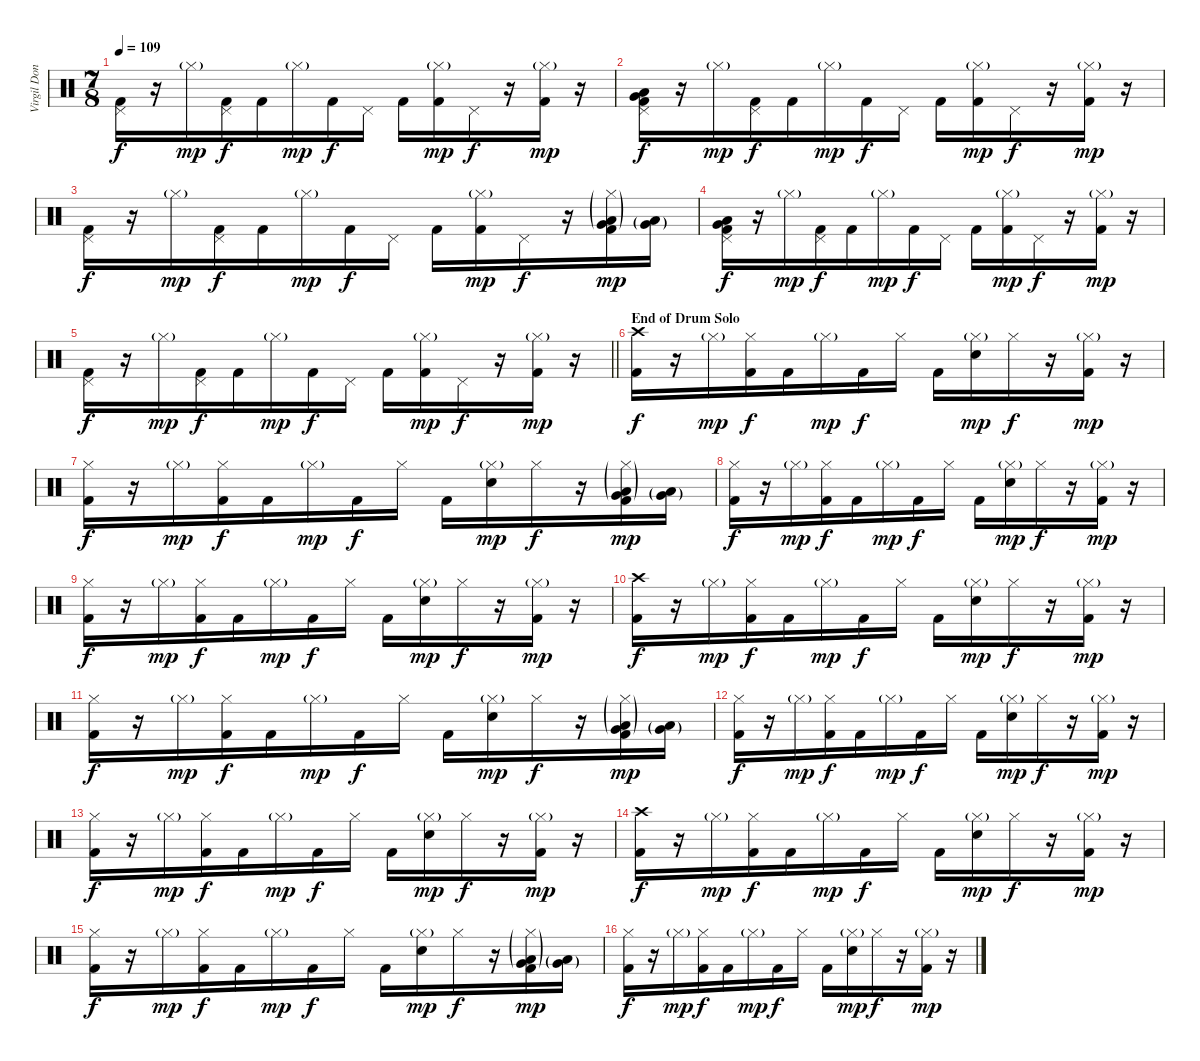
\track ("Virgil Donati" "Virgil Don") {instrument percussion}
\staff {score}
\articulation defaults
\ts (7 8)
\tempo 109
\clef neutral
\ks c
("Pedal Hi-Hat (hit)" "Kick (hit) 2").16{dy f} r.16 "Hi-Hat (closed)"{g}.16{dy mp} ("Pedal Hi-Hat (hit)" "Kick (hit) 2").16{dy f} "Kick (hit) 2".16 "Hi-Hat (closed)"{g}.16{dy mp} "Kick (hit) 2".16{dy f} "Pedal Hi-Hat (hit)".16 "Kick (hit) 2".16 ("Hi-Hat (closed)"{g} "Kick (hit) 2").16{dy mp} "Pedal Hi-Hat (hit)".16{dy f} r.16 ("Hi-Hat (closed)"{g} "Kick (hit) 2").16{dy mp} r.16 |
("Pedal Hi-Hat (hit)" "Very Low Tom (hit)" "Low Floor Tom (hit)" "Kick (hit) 2").16{dy f} r.16 "Hi-Hat (closed)"{g}.16{dy mp} ("Pedal Hi-Hat (hit)" "Kick (hit) 2").16{dy f} "Kick (hit) 2".16 "Hi-Hat (closed)"{g}.16{dy mp} "Kick (hit) 2".16{dy f} "Pedal Hi-Hat (hit)".16 "Kick (hit) 2".16 ("Hi-Hat (closed)"{g} "Kick (hit) 2").16{dy mp} "Pedal Hi-Hat (hit)".16{dy f} r.16 ("Hi-Hat (closed)"{g} "Kick (hit) 2").16{dy mp} r.16 |
("Pedal Hi-Hat (hit)" "Kick (hit) 2").16{dy f} r.16 "Hi-Hat (closed)"{g}.16{dy mp} ("Pedal Hi-Hat (hit)" "Kick (hit) 2").16{dy f} "Kick (hit) 2".16 "Hi-Hat (closed)"{g}.16{dy mp} "Kick (hit) 2".16{dy f} "Pedal Hi-Hat (hit)".16 "Kick (hit) 2".16 ("Hi-Hat (closed)"{g} "Kick (hit) 2").16{dy mp} "Pedal Hi-Hat (hit)".16{dy f} r.16 ("Hi-Hat (closed)"{g} "Very Low Tom (hit)"{g} "Low Floor Tom (hit)"{g} "Kick (hit) 2").16{dy mp} ("Very Low Tom (hit)"{g} "Low Floor Tom (hit)"{g}).16 |
("Pedal Hi-Hat (hit)" "Very Low Tom (hit)" "Low Floor Tom (hit)" "Kick (hit) 2").16{dy f} r.16 "Hi-Hat (closed)"{g}.16{dy mp} ("Pedal Hi-Hat (hit)" "Kick (hit) 2").16{dy f} "Kick (hit) 2".16 "Hi-Hat (closed)"{g}.16{dy mp} "Kick (hit) 2".16{dy f} "Pedal Hi-Hat (hit)".16 "Kick (hit) 2".16 ("Hi-Hat (closed)"{g} "Kick (hit) 2").16{dy mp} "Pedal Hi-Hat (hit)".16{dy f} r.16 ("Hi-Hat (closed)"{g} "Kick (hit) 2").16{dy mp} r.16 |
\barLineRight lightlight
("Pedal Hi-Hat (hit)" "Kick (hit) 2").16{dy f} r.16 "Hi-Hat (closed)"{g}.16{dy mp} ("Pedal Hi-Hat (hit)" "Kick (hit) 2").16{dy f} "Kick (hit) 2".16 "Hi-Hat (closed)"{g}.16{dy mp} "Kick (hit) 2".16{dy f} "Pedal Hi-Hat (hit)".16 "Kick (hit) 2".16 ("Hi-Hat (closed)"{g} "Kick (hit) 2").16{dy mp} "Pedal Hi-Hat (hit)".16{dy f} r.16 ("Hi-Hat (closed)"{g} "Kick (hit) 2").16{dy mp} r.16 |
\section ("" "End of Drum Solo")
("Crash high (hit)" "Kick (hit) 2").16{dy f} r.16 "Hi-Hat (closed)"{g}.16{dy mp} ("Hi-Hat (closed)" "Kick (hit) 2").16{dy f} "Kick (hit) 2".16 "Hi-Hat (closed)"{g}.16{dy mp} "Kick (hit) 2".16{dy f} "Hi-Hat (closed)".16 "Kick (hit) 2".16 ("Hi-Hat (closed)"{g} "Electric Snare (hit)").16{dy mp} "Hi-Hat (closed)".16{dy f} r.16 ("Hi-Hat (closed)"{g} "Kick (hit) 2").16{dy mp} r.16 |
("Hi-Hat (closed)" "Kick (hit) 2").16{dy f} r.16 "Hi-Hat (closed)"{g}.16{dy mp} ("Hi-Hat (closed)" "Kick (hit) 2").16{dy f} "Kick (hit) 2".16 "Hi-Hat (closed)"{g}.16{dy mp} "Kick (hit) 2".16{dy f} "Hi-Hat (closed)".16 "Kick (hit) 2".16 ("Hi-Hat (closed)"{g} "Electric Snare (hit)").16{dy mp} "Hi-Hat (closed)".16{dy f} r.16 ("Hi-Hat (closed)"{g} "Very Low Tom (hit)"{g} "Low Floor Tom (hit)"{g} "Kick (hit) 2").16{dy mp} ("Very Low Tom (hit)"{g} "Low Floor Tom (hit)"{g}).16 |
("Hi-Hat (closed)" "Kick (hit) 2").16{dy f} r.16 "Hi-Hat (closed)"{g}.16{dy mp} ("Hi-Hat (closed)" "Kick (hit) 2").16{dy f} "Kick (hit) 2".16 "Hi-Hat (closed)"{g}.16{dy mp} "Kick (hit) 2".16{dy f} "Hi-Hat (closed)".16 "Kick (hit) 2".16 ("Hi-Hat (closed)"{g} "Electric Snare (hit)").16{dy mp} "Hi-Hat (closed)".16{dy f} r.16 ("Hi-Hat (closed)"{g} "Kick (hit) 2").16{dy mp} r.16 |
("Hi-Hat (closed)" "Kick (hit) 2").16{dy f} r.16 "Hi-Hat (closed)"{g}.16{dy mp} ("Hi-Hat (closed)" "Kick (hit) 2").16{dy f} "Kick (hit) 2".16 "Hi-Hat (closed)"{g}.16{dy mp} "Kick (hit) 2".16{dy f} "Hi-Hat (closed)".16 "Kick (hit) 2".16 ("Hi-Hat (closed)"{g} "Electric Snare (hit)").16{dy mp} "Hi-Hat (closed)".16{dy f} r.16 ("Hi-Hat (closed)"{g} "Kick (hit) 2").16{dy mp} r.16 |
("Crash high (hit)" "Kick (hit) 2").16{dy f} r.16 "Hi-Hat (closed)"{g}.16{dy mp} ("Hi-Hat (closed)" "Kick (hit) 2").16{dy f} "Kick (hit) 2".16 "Hi-Hat (closed)"{g}.16{dy mp} "Kick (hit) 2".16{dy f} "Hi-Hat (closed)".16 "Kick (hit) 2".16 ("Hi-Hat (closed)"{g} "Electric Snare (hit)").16{dy mp} "Hi-Hat (closed)".16{dy f} r.16 ("Hi-Hat (closed)"{g} "Kick (hit) 2").16{dy mp} r.16 |
("Hi-Hat (closed)" "Kick (hit) 2").16{dy f} r.16 "Hi-Hat (closed)"{g}.16{dy mp} ("Hi-Hat (closed)" "Kick (hit) 2").16{dy f} "Kick (hit) 2".16 "Hi-Hat (closed)"{g}.16{dy mp} "Kick (hit) 2".16{dy f} "Hi-Hat (closed)".16 "Kick (hit) 2".16 ("Hi-Hat (closed)"{g} "Electric Snare (hit)").16{dy mp} "Hi-Hat (closed)".16{dy f} r.16 ("Hi-Hat (closed)"{g} "Very Low Tom (hit)"{g} "Low Floor Tom (hit)"{g} "Kick (hit) 2").16{dy mp} ("Very Low Tom (hit)"{g} "Low Floor Tom (hit)"{g}).16 |
("Hi-Hat (closed)" "Kick (hit) 2").16{dy f} r.16 "Hi-Hat (closed)"{g}.16{dy mp} ("Hi-Hat (closed)" "Kick (hit) 2").16{dy f} "Kick (hit) 2".16 "Hi-Hat (closed)"{g}.16{dy mp} "Kick (hit) 2".16{dy f} "Hi-Hat (closed)".16 "Kick (hit) 2".16 ("Hi-Hat (closed)"{g} "Electric Snare (hit)").16{dy mp} "Hi-Hat (closed)".16{dy f} r.16 ("Hi-Hat (closed)"{g} "Kick (hit) 2").16{dy mp} r.16 |
("Hi-Hat (closed)" "Kick (hit) 2").16{dy f} r.16 "Hi-Hat (closed)"{g}.16{dy mp} ("Hi-Hat (closed)" "Kick (hit) 2").16{dy f} "Kick (hit) 2".16 "Hi-Hat (closed)"{g}.16{dy mp} "Kick (hit) 2".16{dy f} "Hi-Hat (closed)".16 "Kick (hit) 2".16 ("Hi-Hat (closed)"{g} "Electric Snare (hit)").16{dy mp} "Hi-Hat (closed)".16{dy f} r.16 ("Hi-Hat (closed)"{g} "Kick (hit) 2").16{dy mp} r.16 |
("Crash high (hit)" "Kick (hit) 2").16{dy f} r.16 "Hi-Hat (closed)"{g}.16{dy mp} ("Hi-Hat (closed)" "Kick (hit) 2").16{dy f} "Kick (hit) 2".16 "Hi-Hat (closed)"{g}.16{dy mp} "Kick (hit) 2".16{dy f} "Hi-Hat (closed)".16 "Kick (hit) 2".16 ("Hi-Hat (closed)"{g} "Electric Snare (hit)").16{dy mp} "Hi-Hat (closed)".16{dy f} r.16 ("Hi-Hat (closed)"{g} "Kick (hit) 2").16{dy mp} r.16 |
("Hi-Hat (closed)" "Kick (hit) 2").16{dy f} r.16 "Hi-Hat (closed)"{g}.16{dy mp} ("Hi-Hat (closed)" "Kick (hit) 2").16{dy f} "Kick (hit) 2".16 "Hi-Hat (closed)"{g}.16{dy mp} "Kick (hit) 2".16{dy f} "Hi-Hat (closed)".16 "Kick (hit) 2".16 ("Hi-Hat (closed)"{g} "Electric Snare (hit)").16{dy mp} "Hi-Hat (closed)".16{dy f} r.16 ("Hi-Hat (closed)"{g} "Very Low Tom (hit)"{g} "Low Floor Tom (hit)"{g} "Kick (hit) 2").16{dy mp} ("Very Low Tom (hit)"{g} "Low Floor Tom (hit)"{g}).16 |
("Hi-Hat (closed)" "Kick (hit) 2").16{dy f} r.16 "Hi-Hat (closed)"{g}.16{dy mp} ("Hi-Hat (closed)" "Kick (hit) 2").16{dy f} "Kick (hit) 2".16 "Hi-Hat (closed)"{g}.16{dy mp} "Kick (hit) 2".16{dy f} "Hi-Hat (closed)".16 "Kick (hit) 2".16 ("Hi-Hat (closed)"{g} "Electric Snare (hit)").16{dy mp} "Hi-Hat (closed)".16{dy f} r.16 ("Hi-Hat (closed)"{g} "Kick (hit) 2").16{dy mp} r.16
